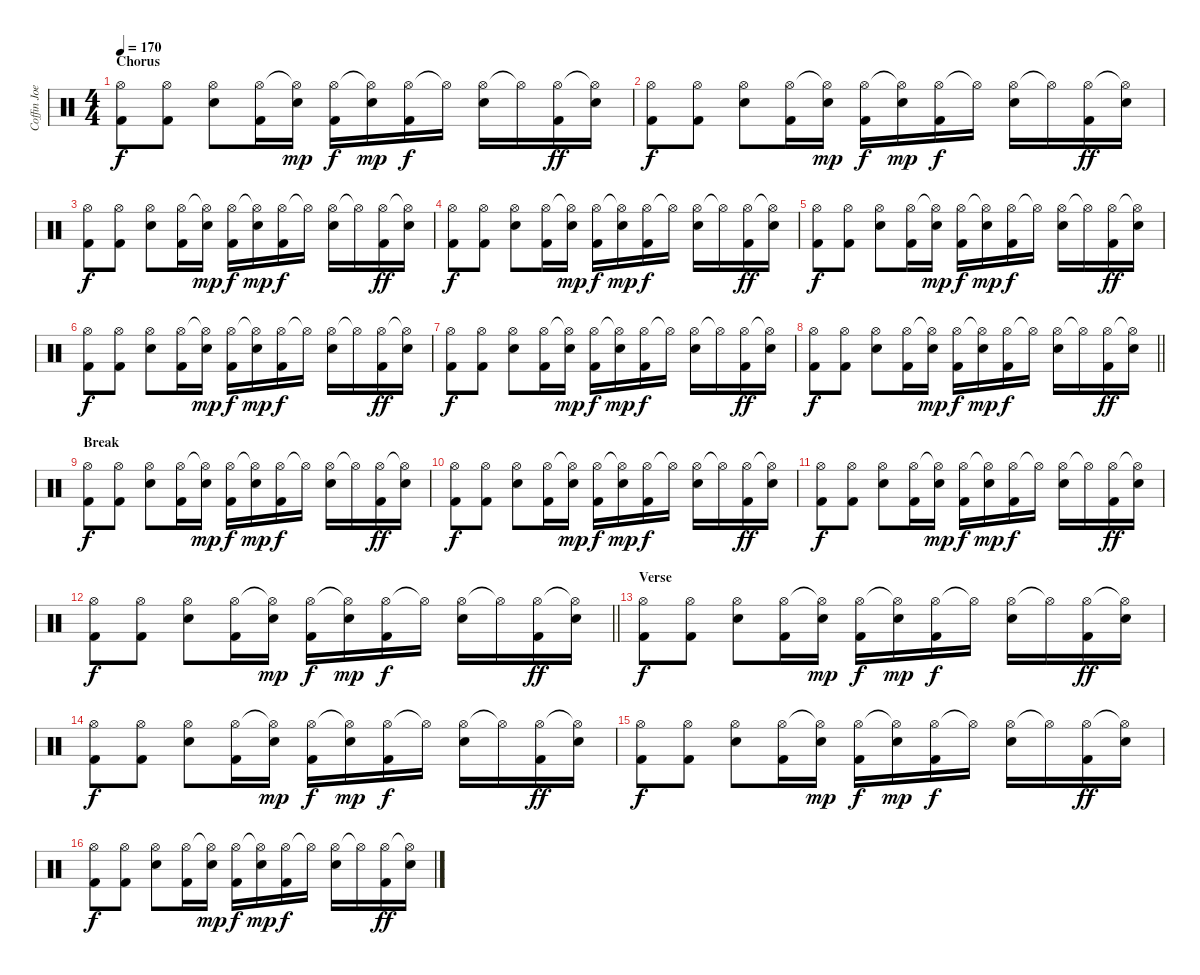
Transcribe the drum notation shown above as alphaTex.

\track ("Coffin Joe" "Coffin Joe") {instrument percussion}
\staff {score}
\articulation defaults
\ts (4 4)
\section ("" "Chorus")
\tempo 170
\clef neutral
\ks c
("Hi-Hat (open)" "Kick (hit) 2").8{dy f} ("Hi-Hat (open)" "Kick (hit) 2").8 ("Hi-Hat (open)" "Snare (hit) 2").8 ("Hi-Hat (open)" "Kick (hit) 2").16 ("Hi-Hat (open)"{t} "Snare (hit) 2").16{dy mp} ("Hi-Hat (open)" "Kick (hit) 2").16{dy f} ("Hi-Hat (open)"{t} "Snare (hit) 2").16{dy mp} ("Hi-Hat (open)" "Kick (hit) 2").16{dy f} "Hi-Hat (open)"{t}.16 ("Hi-Hat (open)" "Snare (hit) 2").16 "Hi-Hat (open)"{t}.16 ("Hi-Hat (open)" "Kick (hit) 2").16{dy ff} ("Hi-Hat (open)"{t} "Snare (hit) 2").16 |
("Hi-Hat (open)" "Kick (hit) 2").8{dy f} ("Hi-Hat (open)" "Kick (hit) 2").8 ("Hi-Hat (open)" "Snare (hit) 2").8 ("Hi-Hat (open)" "Kick (hit) 2").16 ("Hi-Hat (open)"{t} "Snare (hit) 2").16{dy mp} ("Hi-Hat (open)" "Kick (hit) 2").16{dy f} ("Hi-Hat (open)"{t} "Snare (hit) 2").16{dy mp} ("Hi-Hat (open)" "Kick (hit) 2").16{dy f} "Hi-Hat (open)"{t}.16 ("Hi-Hat (open)" "Snare (hit) 2").16 "Hi-Hat (open)"{t}.16 ("Hi-Hat (open)" "Kick (hit) 2").16{dy ff} ("Hi-Hat (open)"{t} "Snare (hit) 2").16 |
("Hi-Hat (open)" "Kick (hit) 2").8{dy f} ("Hi-Hat (open)" "Kick (hit) 2").8 ("Hi-Hat (open)" "Snare (hit) 2").8 ("Hi-Hat (open)" "Kick (hit) 2").16 ("Hi-Hat (open)"{t} "Snare (hit) 2").16{dy mp} ("Hi-Hat (open)" "Kick (hit) 2").16{dy f} ("Hi-Hat (open)"{t} "Snare (hit) 2").16{dy mp} ("Hi-Hat (open)" "Kick (hit) 2").16{dy f} "Hi-Hat (open)"{t}.16 ("Hi-Hat (open)" "Snare (hit) 2").16 "Hi-Hat (open)"{t}.16 ("Hi-Hat (open)" "Kick (hit) 2").16{dy ff} ("Hi-Hat (open)"{t} "Snare (hit) 2").16 |
("Hi-Hat (open)" "Kick (hit) 2").8{dy f} ("Hi-Hat (open)" "Kick (hit) 2").8 ("Hi-Hat (open)" "Snare (hit) 2").8 ("Hi-Hat (open)" "Kick (hit) 2").16 ("Hi-Hat (open)"{t} "Snare (hit) 2").16{dy mp} ("Hi-Hat (open)" "Kick (hit) 2").16{dy f} ("Hi-Hat (open)"{t} "Snare (hit) 2").16{dy mp} ("Hi-Hat (open)" "Kick (hit) 2").16{dy f} "Hi-Hat (open)"{t}.16 ("Hi-Hat (open)" "Snare (hit) 2").16 "Hi-Hat (open)"{t}.16 ("Hi-Hat (open)" "Kick (hit) 2").16{dy ff} ("Hi-Hat (open)"{t} "Snare (hit) 2").16 |
("Hi-Hat (open)" "Kick (hit) 2").8{dy f} ("Hi-Hat (open)" "Kick (hit) 2").8 ("Hi-Hat (open)" "Snare (hit) 2").8 ("Hi-Hat (open)" "Kick (hit) 2").16 ("Hi-Hat (open)"{t} "Snare (hit) 2").16{dy mp} ("Hi-Hat (open)" "Kick (hit) 2").16{dy f} ("Hi-Hat (open)"{t} "Snare (hit) 2").16{dy mp} ("Hi-Hat (open)" "Kick (hit) 2").16{dy f} "Hi-Hat (open)"{t}.16 ("Hi-Hat (open)" "Snare (hit) 2").16 "Hi-Hat (open)"{t}.16 ("Hi-Hat (open)" "Kick (hit) 2").16{dy ff} ("Hi-Hat (open)"{t} "Snare (hit) 2").16 |
("Hi-Hat (open)" "Kick (hit) 2").8{dy f} ("Hi-Hat (open)" "Kick (hit) 2").8 ("Hi-Hat (open)" "Snare (hit) 2").8 ("Hi-Hat (open)" "Kick (hit) 2").16 ("Hi-Hat (open)"{t} "Snare (hit) 2").16{dy mp} ("Hi-Hat (open)" "Kick (hit) 2").16{dy f} ("Hi-Hat (open)"{t} "Snare (hit) 2").16{dy mp} ("Hi-Hat (open)" "Kick (hit) 2").16{dy f} "Hi-Hat (open)"{t}.16 ("Hi-Hat (open)" "Snare (hit) 2").16 "Hi-Hat (open)"{t}.16 ("Hi-Hat (open)" "Kick (hit) 2").16{dy ff} ("Hi-Hat (open)"{t} "Snare (hit) 2").16 |
("Hi-Hat (open)" "Kick (hit) 2").8{dy f} ("Hi-Hat (open)" "Kick (hit) 2").8 ("Hi-Hat (open)" "Snare (hit) 2").8 ("Hi-Hat (open)" "Kick (hit) 2").16 ("Hi-Hat (open)"{t} "Snare (hit) 2").16{dy mp} ("Hi-Hat (open)" "Kick (hit) 2").16{dy f} ("Hi-Hat (open)"{t} "Snare (hit) 2").16{dy mp} ("Hi-Hat (open)" "Kick (hit) 2").16{dy f} "Hi-Hat (open)"{t}.16 ("Hi-Hat (open)" "Snare (hit) 2").16 "Hi-Hat (open)"{t}.16 ("Hi-Hat (open)" "Kick (hit) 2").16{dy ff} ("Hi-Hat (open)"{t} "Snare (hit) 2").16 |
\barLineRight lightlight
("Hi-Hat (open)" "Kick (hit) 2").8{dy f} ("Hi-Hat (open)" "Kick (hit) 2").8 ("Hi-Hat (open)" "Snare (hit) 2").8 ("Hi-Hat (open)" "Kick (hit) 2").16 ("Hi-Hat (open)"{t} "Snare (hit) 2").16{dy mp} ("Hi-Hat (open)" "Kick (hit) 2").16{dy f} ("Hi-Hat (open)"{t} "Snare (hit) 2").16{dy mp} ("Hi-Hat (open)" "Kick (hit) 2").16{dy f} "Hi-Hat (open)"{t}.16 ("Hi-Hat (open)" "Snare (hit) 2").16 "Hi-Hat (open)"{t}.16 ("Hi-Hat (open)" "Kick (hit) 2").16{dy ff} ("Hi-Hat (open)"{t} "Snare (hit) 2").16 |
\section ("" "Break")
("Hi-Hat (open)" "Kick (hit) 2").8{dy f} ("Hi-Hat (open)" "Kick (hit) 2").8 ("Hi-Hat (open)" "Snare (hit) 2").8 ("Hi-Hat (open)" "Kick (hit) 2").16 ("Hi-Hat (open)"{t} "Snare (hit) 2").16{dy mp} ("Hi-Hat (open)" "Kick (hit) 2").16{dy f} ("Hi-Hat (open)"{t} "Snare (hit) 2").16{dy mp} ("Hi-Hat (open)" "Kick (hit) 2").16{dy f} "Hi-Hat (open)"{t}.16 ("Hi-Hat (open)" "Snare (hit) 2").16 "Hi-Hat (open)"{t}.16 ("Hi-Hat (open)" "Kick (hit) 2").16{dy ff} ("Hi-Hat (open)"{t} "Snare (hit) 2").16 |
("Hi-Hat (open)" "Kick (hit) 2").8{dy f} ("Hi-Hat (open)" "Kick (hit) 2").8 ("Hi-Hat (open)" "Snare (hit) 2").8 ("Hi-Hat (open)" "Kick (hit) 2").16 ("Hi-Hat (open)"{t} "Snare (hit) 2").16{dy mp} ("Hi-Hat (open)" "Kick (hit) 2").16{dy f} ("Hi-Hat (open)"{t} "Snare (hit) 2").16{dy mp} ("Hi-Hat (open)" "Kick (hit) 2").16{dy f} "Hi-Hat (open)"{t}.16 ("Hi-Hat (open)" "Snare (hit) 2").16 "Hi-Hat (open)"{t}.16 ("Hi-Hat (open)" "Kick (hit) 2").16{dy ff} ("Hi-Hat (open)"{t} "Snare (hit) 2").16 |
("Hi-Hat (open)" "Kick (hit) 2").8{dy f} ("Hi-Hat (open)" "Kick (hit) 2").8 ("Hi-Hat (open)" "Snare (hit) 2").8 ("Hi-Hat (open)" "Kick (hit) 2").16 ("Hi-Hat (open)"{t} "Snare (hit) 2").16{dy mp} ("Hi-Hat (open)" "Kick (hit) 2").16{dy f} ("Hi-Hat (open)"{t} "Snare (hit) 2").16{dy mp} ("Hi-Hat (open)" "Kick (hit) 2").16{dy f} "Hi-Hat (open)"{t}.16 ("Hi-Hat (open)" "Snare (hit) 2").16 "Hi-Hat (open)"{t}.16 ("Hi-Hat (open)" "Kick (hit) 2").16{dy ff} ("Hi-Hat (open)"{t} "Snare (hit) 2").16 |
\barLineRight lightlight
("Hi-Hat (open)" "Kick (hit) 2").8{dy f} ("Hi-Hat (open)" "Kick (hit) 2").8 ("Hi-Hat (open)" "Snare (hit) 2").8 ("Hi-Hat (open)" "Kick (hit) 2").16 ("Hi-Hat (open)"{t} "Snare (hit) 2").16{dy mp} ("Hi-Hat (open)" "Kick (hit) 2").16{dy f} ("Hi-Hat (open)"{t} "Snare (hit) 2").16{dy mp} ("Hi-Hat (open)" "Kick (hit) 2").16{dy f} "Hi-Hat (open)"{t}.16 ("Hi-Hat (open)" "Snare (hit) 2").16 "Hi-Hat (open)"{t}.16 ("Hi-Hat (open)" "Kick (hit) 2").16{dy ff} ("Hi-Hat (open)"{t} "Snare (hit) 2").16 |
\section ("" "Verse")
("Hi-Hat (open)" "Kick (hit) 2").8{dy f} ("Hi-Hat (open)" "Kick (hit) 2").8 ("Hi-Hat (open)" "Snare (hit) 2").8 ("Hi-Hat (open)" "Kick (hit) 2").16 ("Hi-Hat (open)"{t} "Snare (hit) 2").16{dy mp} ("Hi-Hat (open)" "Kick (hit) 2").16{dy f} ("Hi-Hat (open)"{t} "Snare (hit) 2").16{dy mp} ("Hi-Hat (open)" "Kick (hit) 2").16{dy f} "Hi-Hat (open)"{t}.16 ("Hi-Hat (open)" "Snare (hit) 2").16 "Hi-Hat (open)"{t}.16 ("Hi-Hat (open)" "Kick (hit) 2").16{dy ff} ("Hi-Hat (open)"{t} "Snare (hit) 2").16 |
("Hi-Hat (open)" "Kick (hit) 2").8{dy f} ("Hi-Hat (open)" "Kick (hit) 2").8 ("Hi-Hat (open)" "Snare (hit) 2").8 ("Hi-Hat (open)" "Kick (hit) 2").16 ("Hi-Hat (open)"{t} "Snare (hit) 2").16{dy mp} ("Hi-Hat (open)" "Kick (hit) 2").16{dy f} ("Hi-Hat (open)"{t} "Snare (hit) 2").16{dy mp} ("Hi-Hat (open)" "Kick (hit) 2").16{dy f} "Hi-Hat (open)"{t}.16 ("Hi-Hat (open)" "Snare (hit) 2").16 "Hi-Hat (open)"{t}.16 ("Hi-Hat (open)" "Kick (hit) 2").16{dy ff} ("Hi-Hat (open)"{t} "Snare (hit) 2").16 |
("Hi-Hat (open)" "Kick (hit) 2").8{dy f} ("Hi-Hat (open)" "Kick (hit) 2").8 ("Hi-Hat (open)" "Snare (hit) 2").8 ("Hi-Hat (open)" "Kick (hit) 2").16 ("Hi-Hat (open)"{t} "Snare (hit) 2").16{dy mp} ("Hi-Hat (open)" "Kick (hit) 2").16{dy f} ("Hi-Hat (open)"{t} "Snare (hit) 2").16{dy mp} ("Hi-Hat (open)" "Kick (hit) 2").16{dy f} "Hi-Hat (open)"{t}.16 ("Hi-Hat (open)" "Snare (hit) 2").16 "Hi-Hat (open)"{t}.16 ("Hi-Hat (open)" "Kick (hit) 2").16{dy ff} ("Hi-Hat (open)"{t} "Snare (hit) 2").16 |
("Hi-Hat (open)" "Kick (hit) 2").8{dy f} ("Hi-Hat (open)" "Kick (hit) 2").8 ("Hi-Hat (open)" "Snare (hit) 2").8 ("Hi-Hat (open)" "Kick (hit) 2").16 ("Hi-Hat (open)"{t} "Snare (hit) 2").16{dy mp} ("Hi-Hat (open)" "Kick (hit) 2").16{dy f} ("Hi-Hat (open)"{t} "Snare (hit) 2").16{dy mp} ("Hi-Hat (open)" "Kick (hit) 2").16{dy f} "Hi-Hat (open)"{t}.16 ("Hi-Hat (open)" "Snare (hit) 2").16 "Hi-Hat (open)"{t}.16 ("Hi-Hat (open)" "Kick (hit) 2").16{dy ff} ("Hi-Hat (open)"{t} "Snare (hit) 2").16
